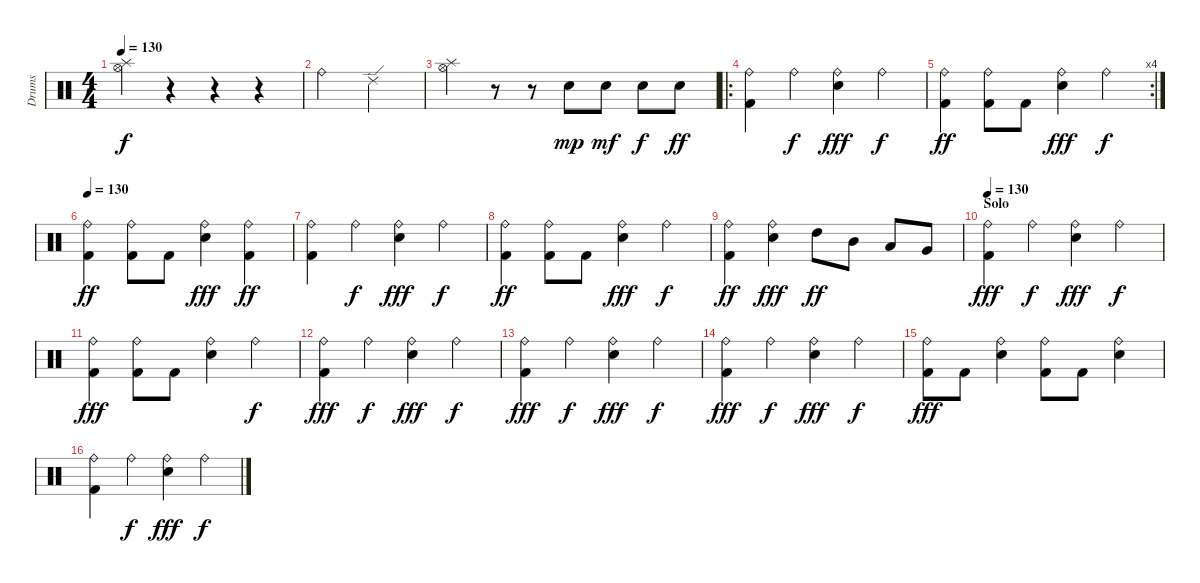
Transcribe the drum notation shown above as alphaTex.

\track ("Drums" "Drums") {instrument percussion}
\staff {score}
\articulation defaults
\ts (4 4)
\tempo 130
\clef neutral
\ks c
("Hi-Hat (open)" "Splash (hit)").4{dy f} r.4 r.4 r.4 |
"Ride (bell)".2 "Ride (edge) 2".2 |
("Hi-Hat (open)" "Splash (hit)").4 r.8 r.8 "Snare (hit) 2".8{dy mp} "Snare (hit) 2".8{dy mf} "Snare (hit) 2".8{dy f} "Snare (hit) 2".8{dy ff} |
\ro
("Ride (bell)" "Kick (hit) 2").4 "Ride (bell)".4{dy f} ("Ride (bell)" "Snare (hit) 2").4{dy fff} "Ride (bell)".4{dy f} |
\rc 4
("Ride (bell)" "Kick (hit) 2").4{dy ff} ("Ride (bell)" "Kick (hit) 2").8 "Kick (hit) 2".8 ("Ride (bell)" "Snare (hit) 2").4{dy fff} "Ride (bell)".4{dy f} |
\tempo 130
("Ride (bell)" "Kick (hit) 2").4{dy ff} ("Ride (bell)" "Kick (hit) 2").8 "Kick (hit) 2".8 ("Ride (bell)" "Snare (hit) 2").4{dy fff} ("Ride (bell)" "Kick (hit) 2").4{dy ff} |
("Ride (bell)" "Kick (hit) 2").4 "Ride (bell)".4{dy f} ("Ride (bell)" "Snare (hit) 2").4{dy fff} "Ride (bell)".4{dy f} |
("Ride (bell)" "Kick (hit) 2").4{dy ff} ("Ride (bell)" "Kick (hit) 2").8 "Kick (hit) 2".8 ("Ride (bell)" "Snare (hit) 2").4{dy fff} "Ride (bell)".4{dy f} |
("Ride (bell)" "Kick (hit) 2").4{dy ff} ("Ride (bell)" "Snare (hit) 2").4{dy fff} "High Tom (hit)".8{dy ff} "Mid Tom (hit)".8 "Low Tom (hit)".8 "Very Low Tom (hit)".8 |
\section ("" "Solo")
\tempo 130
("Ride (bell)" "Kick (hit) 2").4{dy fff} "Ride (bell)".4{dy f} ("Ride (bell)" "Snare (hit) 2").4{dy fff} "Ride (bell)".4{dy f} |
("Ride (bell)" "Kick (hit) 2").4{dy fff} ("Ride (bell)" "Kick (hit) 2").8 "Kick (hit) 2".8 ("Ride (bell)" "Snare (hit) 2").4 "Ride (bell)".4{dy f} |
("Ride (bell)" "Kick (hit) 2").4{dy fff} "Ride (bell)".4{dy f} ("Ride (bell)" "Snare (hit) 2").4{dy fff} "Ride (bell)".4{dy f} |
("Ride (bell)" "Kick (hit) 2").4{dy fff} "Ride (bell)".4{dy f} ("Ride (bell)" "Snare (hit) 2").4{dy fff} "Ride (bell)".4{dy f} |
("Ride (bell)" "Kick (hit) 2").4{dy fff} "Ride (bell)".4{dy f} ("Ride (bell)" "Snare (hit) 2").4{dy fff} "Ride (bell)".4{dy f} |
("Ride (bell)" "Kick (hit) 2").8{dy fff} "Kick (hit) 2".8 ("Ride (bell)" "Snare (hit) 2").4 ("Ride (bell)" "Kick (hit) 2").8 "Kick (hit) 2".8 ("Ride (bell)" "Snare (hit) 2").4 |
("Ride (bell)" "Kick (hit) 2").4 "Ride (bell)".4{dy f} ("Ride (bell)" "Snare (hit) 2").4{dy fff} "Ride (bell)".4{dy f}
